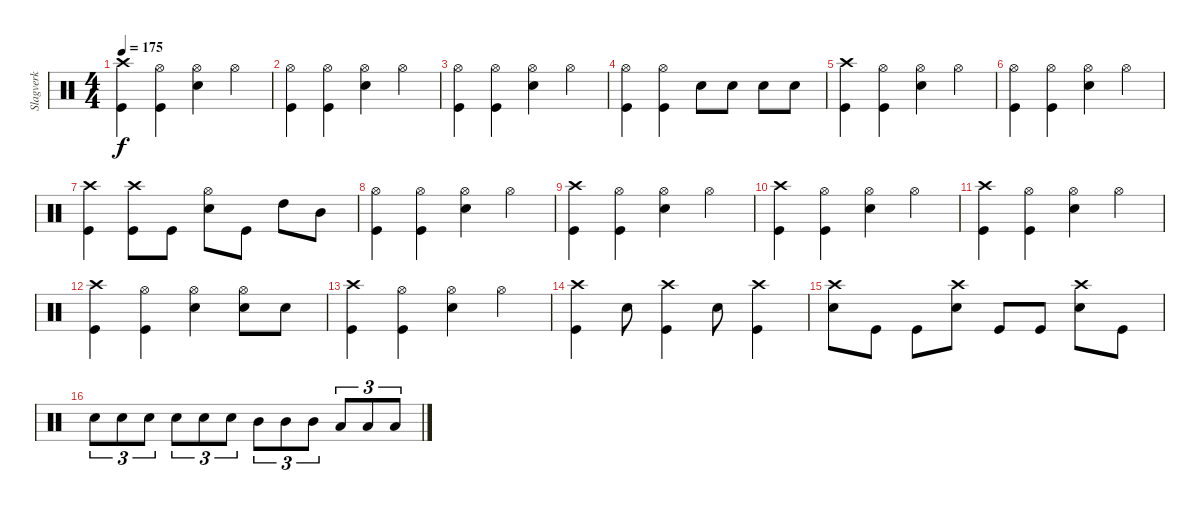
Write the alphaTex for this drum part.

\track ("Slagverk" "Slagverk") {instrument percussion}
\staff {score}
\articulation defaults
\ts (4 4)
\tempo 175
\clef neutral
\ks c
("Crash high (hit)" "Kick (hit)").4{dy f} ("Hi-Hat (open)" "Kick (hit)").4 ("Hi-Hat (open)" "Electric Snare (hit)").4 "Hi-Hat (open)".4 |
("Hi-Hat (open)" "Kick (hit)").4 ("Hi-Hat (open)" "Kick (hit)").4 ("Hi-Hat (open)" "Electric Snare (hit)").4 "Hi-Hat (open)".4 |
("Hi-Hat (open)" "Kick (hit)").4 ("Hi-Hat (open)" "Kick (hit)").4 ("Hi-Hat (open)" "Electric Snare (hit)").4 "Hi-Hat (open)".4 |
("Hi-Hat (open)" "Kick (hit)").4 ("Hi-Hat (open)" "Kick (hit)").4 "Electric Snare (hit)".8 "Electric Snare (hit)".8 "Electric Snare (hit)".8 "Electric Snare (hit)".8 |
("Crash high (hit)" "Kick (hit)").4 ("Hi-Hat (open)" "Kick (hit)").4 ("Hi-Hat (open)" "Electric Snare (hit)").4 "Hi-Hat (open)".4 |
("Hi-Hat (open)" "Kick (hit)").4 ("Hi-Hat (open)" "Kick (hit)").4 ("Hi-Hat (open)" "Electric Snare (hit)").4 "Hi-Hat (open)".4 |
("Crash high (hit)" "Kick (hit)").4 ("Crash high (hit)" "Kick (hit)").8 "Kick (hit)".8 ("Hi-Hat (open)" "Electric Snare (hit)").8 "Kick (hit)".8 "High Tom (hit)".8 "Mid Tom (hit)".8 |
("Hi-Hat (open)" "Kick (hit)").4 ("Hi-Hat (open)" "Kick (hit)").4 ("Hi-Hat (open)" "Electric Snare (hit)").4 "Hi-Hat (open)".4 |
("Crash high (hit)" "Kick (hit)").4 ("Hi-Hat (open)" "Kick (hit)").4 ("Hi-Hat (open)" "Electric Snare (hit)").4 "Hi-Hat (open)".4 |
("Crash high (hit)" "Kick (hit)").4 ("Hi-Hat (open)" "Kick (hit)").4 ("Hi-Hat (open)" "Electric Snare (hit)").4 "Hi-Hat (open)".4 |
("Crash high (hit)" "Kick (hit)").4 ("Hi-Hat (open)" "Kick (hit)").4 ("Hi-Hat (open)" "Electric Snare (hit)").4 "Hi-Hat (open)".4 |
("Crash high (hit)" "Kick (hit)").4 ("Hi-Hat (open)" "Kick (hit)").4 ("Hi-Hat (open)" "Electric Snare (hit)").4 ("Hi-Hat (open)" "Electric Snare (hit)").8 "Electric Snare (hit)".8 |
("Crash high (hit)" "Kick (hit)").4 ("Hi-Hat (open)" "Kick (hit)").4 ("Hi-Hat (open)" "Electric Snare (hit)").4 "Hi-Hat (open)".4 |
("Crash high (hit)" "Kick (hit)").4 "Electric Snare (hit)".8 ("Crash high (hit)" "Kick (hit)").4 "Electric Snare (hit)".8 ("Crash high (hit)" "Kick (hit)").4 |
("Crash high (hit)" "Electric Snare (hit)").8 "Kick (hit)".8 "Kick (hit)".8 ("Crash high (hit)" "Electric Snare (hit)").8 "Kick (hit)".8 "Kick (hit)".8 ("Crash high (hit)" "Electric Snare (hit)").8 "Kick (hit)".8 |
"Electric Snare (hit)".8{tu (3 2)} "Electric Snare (hit)".8{tu (3 2)} "Electric Snare (hit)".8{tu (3 2)} "Electric Snare (hit)".8{tu (3 2)} "Electric Snare (hit)".8{tu (3 2)} "Electric Snare (hit)".8{tu (3 2)} "Mid Tom (hit)".8{tu (3 2)} "Mid Tom (hit)".8{tu (3 2)} "Mid Tom (hit)".8{tu (3 2)} "Low Tom (hit)".8{tu (3 2)} "Low Tom (hit)".8{tu (3 2)} "Low Tom (hit)".8{tu (3 2)}
